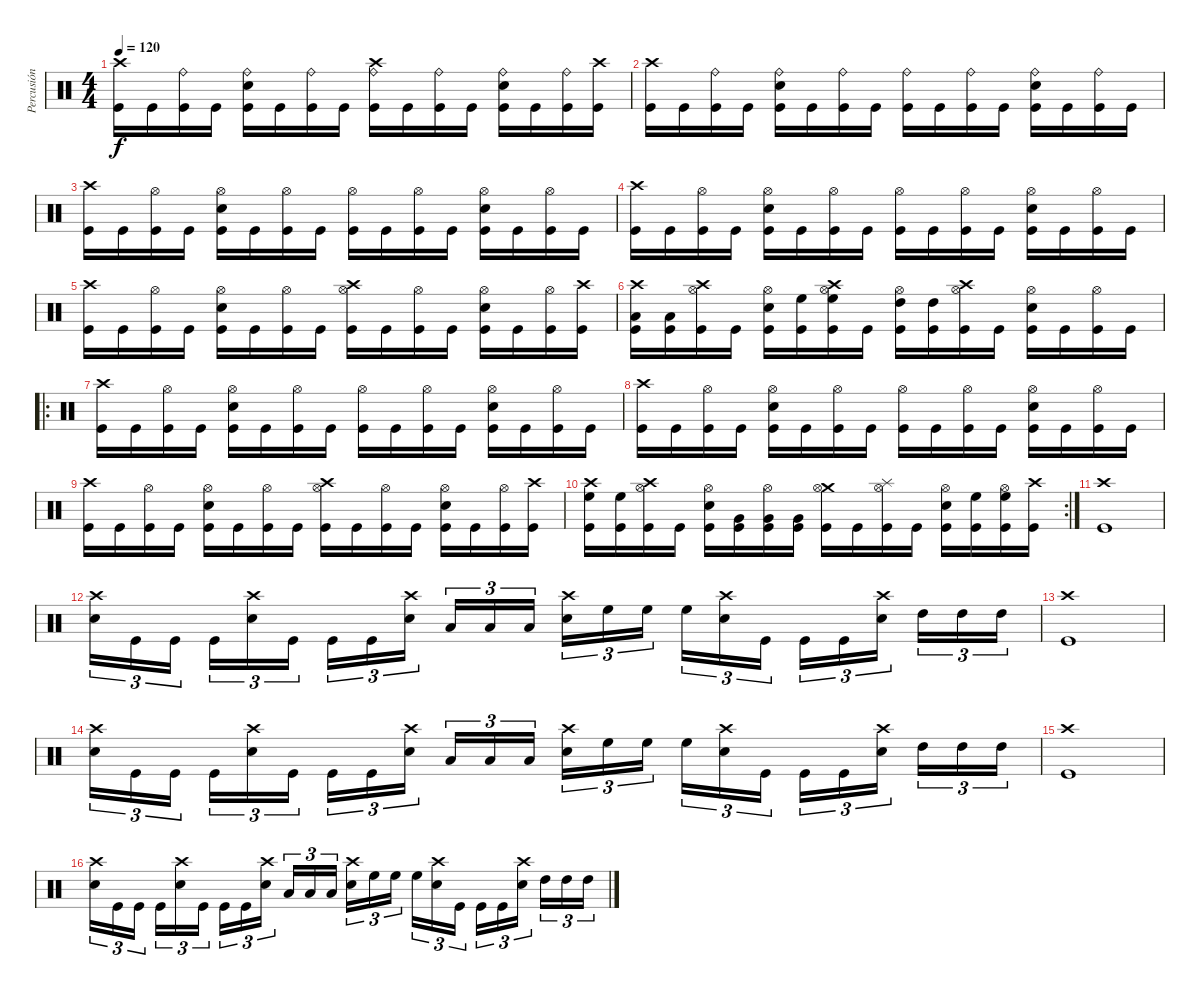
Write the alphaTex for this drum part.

\track ("Percusión" "Percusión") {instrument percussion}
\staff {score}
\articulation defaults
\ts (4 4)
\tempo 120
\clef neutral
\ks c
("Crash high (hit)" "Kick (hit)").16{dy f} "Kick (hit)".16 ("Ride (bell)" "Kick (hit)").16 "Kick (hit)".16 ("Snare (hit) 2" "Ride (bell)" "Kick (hit)").16 "Kick (hit)".16 ("Ride (bell)" "Kick (hit)").16 "Kick (hit)".16 ("Crash high (hit)" "Ride (bell)" "Kick (hit)").16 "Kick (hit)".16 ("Ride (bell)" "Kick (hit)").16 "Kick (hit)".16 ("Snare (hit) 2" "Ride (bell)" "Kick (hit)").16 "Kick (hit)".16 ("Ride (bell)" "Kick (hit)").16 ("Crash high (hit)" "Kick (hit)").16 |
("Crash high (hit)" "Kick (hit)").16 "Kick (hit)".16 ("Ride (bell)" "Kick (hit)").16 "Kick (hit)".16 ("Snare (hit) 2" "Ride (bell)" "Kick (hit)").16 "Kick (hit)".16 ("Ride (bell)" "Kick (hit)").16 "Kick (hit)".16 ("Ride (bell)" "Kick (hit)").16 "Kick (hit)".16 ("Ride (bell)" "Kick (hit)").16 "Kick (hit)".16 ("Snare (hit) 2" "Ride (bell)" "Kick (hit)").16 "Kick (hit)".16 ("Ride (bell)" "Kick (hit)").16 "Kick (hit)".16 |
("Crash high (hit)" "Kick (hit)").16 "Kick (hit)".16 ("Hi-Hat (open)" "Kick (hit)").16 "Kick (hit)".16 ("Snare (hit) 2" "Hi-Hat (open)" "Kick (hit)").16 "Kick (hit)".16 ("Hi-Hat (open)" "Kick (hit)").16 "Kick (hit)".16 ("Hi-Hat (open)" "Kick (hit)").16 "Kick (hit)".16 ("Hi-Hat (open)" "Kick (hit)").16 "Kick (hit)".16 ("Snare (hit) 2" "Hi-Hat (open)" "Kick (hit)").16 "Kick (hit)".16 ("Hi-Hat (open)" "Kick (hit)").16 "Kick (hit)".16 |
("Crash high (hit)" "Kick (hit)").16 "Kick (hit)".16 ("Hi-Hat (open)" "Kick (hit)").16 "Kick (hit)".16 ("Snare (hit) 2" "Hi-Hat (open)" "Kick (hit)").16 "Kick (hit)".16 ("Hi-Hat (open)" "Kick (hit)").16 "Kick (hit)".16 ("Hi-Hat (open)" "Kick (hit)").16 "Kick (hit)".16 ("Hi-Hat (open)" "Kick (hit)").16 "Kick (hit)".16 ("Snare (hit) 2" "Hi-Hat (open)" "Kick (hit)").16 "Kick (hit)".16 ("Hi-Hat (open)" "Kick (hit)").16 "Kick (hit)".16 |
("Crash high (hit)" "Kick (hit)").16 "Kick (hit)".16 ("Hi-Hat (open)" "Kick (hit)").16 "Kick (hit)".16 ("Snare (hit) 2" "Hi-Hat (open)" "Kick (hit)").16 "Kick (hit)".16 ("Hi-Hat (open)" "Kick (hit)").16 "Kick (hit)".16 ("Crash high (hit)" "Hi-Hat (open)" "Kick (hit)").16 "Kick (hit)".16 ("Hi-Hat (open)" "Kick (hit)").16 "Kick (hit)".16 ("Snare (hit) 2" "Hi-Hat (open)" "Kick (hit)").16 "Kick (hit)".16 ("Hi-Hat (open)" "Kick (hit)").16 ("Crash high (hit)" "Kick (hit)").16 |
("Low Floor Tom (hit)" "Crash high (hit)" "Kick (hit)").16 ("Low Floor Tom (hit)" "Kick (hit)").16 ("Crash high (hit)" "Hi-Hat (open)" "Kick (hit)").16 "Kick (hit)".16 ("Snare (hit) 2" "Hi-Hat (open)" "Kick (hit)").16 ("High Floor Tom (hit)" "Kick (hit)").16 ("High Floor Tom (hit)" "Crash high (hit)" "Hi-Hat (open)" "Kick (hit)").16 "Kick (hit)".16 ("High Tom (hit)" "Hi-Hat (open)" "Kick (hit)").16 ("High Tom (hit)" "Kick (hit)").16 ("Crash high (hit)" "Hi-Hat (open)" "Kick (hit)").16 "Kick (hit)".16 ("Snare (hit) 2" "Hi-Hat (open)" "Kick (hit)").16 "Kick (hit)".16 ("Hi-Hat (open)" "Kick (hit)").16 "Kick (hit)".16 |
\ro
("Crash high (hit)" "Kick (hit)").16 "Kick (hit)".16 ("Hi-Hat (open)" "Kick (hit)").16 "Kick (hit)".16 ("Snare (hit) 2" "Hi-Hat (open)" "Kick (hit)").16 "Kick (hit)".16 ("Hi-Hat (open)" "Kick (hit)").16 "Kick (hit)".16 ("Hi-Hat (open)" "Kick (hit)").16 "Kick (hit)".16 ("Hi-Hat (open)" "Kick (hit)").16 "Kick (hit)".16 ("Snare (hit) 2" "Hi-Hat (open)" "Kick (hit)").16 "Kick (hit)".16 ("Hi-Hat (open)" "Kick (hit)").16 "Kick (hit)".16 |
("Crash high (hit)" "Kick (hit)").16 "Kick (hit)".16 ("Hi-Hat (open)" "Kick (hit)").16 "Kick (hit)".16 ("Snare (hit) 2" "Hi-Hat (open)" "Kick (hit)").16 "Kick (hit)".16 ("Hi-Hat (open)" "Kick (hit)").16 "Kick (hit)".16 ("Hi-Hat (open)" "Kick (hit)").16 "Kick (hit)".16 ("Hi-Hat (open)" "Kick (hit)").16 "Kick (hit)".16 ("Snare (hit) 2" "Hi-Hat (open)" "Kick (hit)").16 "Kick (hit)".16 ("Hi-Hat (open)" "Kick (hit)").16 "Kick (hit)".16 |
("Crash high (hit)" "Kick (hit)").16 "Kick (hit)".16 ("Hi-Hat (open)" "Kick (hit)").16 "Kick (hit)".16 ("Snare (hit) 2" "Hi-Hat (open)" "Kick (hit)").16 "Kick (hit)".16 ("Hi-Hat (open)" "Kick (hit)").16 "Kick (hit)".16 ("Crash high (hit)" "Hi-Hat (open)" "Kick (hit)").16 "Kick (hit)".16 ("Hi-Hat (open)" "Kick (hit)").16 "Kick (hit)".16 ("Snare (hit) 2" "Hi-Hat (open)" "Kick (hit)").16 "Kick (hit)".16 ("Hi-Hat (open)" "Kick (hit)").16 ("Crash high (hit)" "Kick (hit)").16 |
\rc 2
("High Floor Tom (hit)" "Crash high (hit)" "Kick (hit)").16 ("High Floor Tom (hit)" "Kick (hit)").16 ("Crash high (hit)" "Hi-Hat (open)" "Kick (hit)").16 "Kick (hit)".16 ("Snare (hit) 2" "Hi-Hat (open)" "Kick (hit)").16 ("Very Low Tom (hit)" "Kick (hit)").16 ("Very Low Tom (hit)" "Hi-Hat (open)" "Kick (hit)").16 ("Very Low Tom (hit)" "Kick (hit)").16 ("Crash medium (hit)" "Hi-Hat (open)" "Kick (hit)").16 "Kick (hit)".16 ("Splash (hit)" "Hi-Hat (open)" "Kick (hit)").16 "Kick (hit)".16 ("Snare (hit) 2" "Hi-Hat (open)" "Kick (hit)").16 ("High Floor Tom (hit)" "Kick (hit)").16 ("High Floor Tom (hit)" "Hi-Hat (open)" "Kick (hit)").16 ("Crash high (hit)" "Kick (hit)").16 |
("Kick (hit)" "Crash high (hit)").1 |
("Crash high (hit)" "Snare (hit) 2").16{tu (3 2)} "Kick (hit)".16{tu (3 2)} "Kick (hit)".16{tu (3 2)} "Kick (hit)".16{tu (3 2)} ("Crash high (hit)" "Snare (hit) 2").16{tu (3 2)} "Kick (hit)".16{tu (3 2)} "Kick (hit)".16{tu (3 2)} "Kick (hit)".16{tu (3 2)} ("Crash high (hit)" "Snare (hit) 2").16{tu (3 2)} "Low Floor Tom (hit)".16{tu (3 2)} "Low Floor Tom (hit)".16{tu (3 2)} "Low Floor Tom (hit)".16{tu (3 2)} ("Crash high (hit)" "Snare (hit) 2").16{tu (3 2)} "High Floor Tom (hit)".16{tu (3 2)} "High Floor Tom (hit)".16{tu (3 2)} "High Floor Tom (hit)".16{tu (3 2)} ("Crash high (hit)" "Snare (hit) 2").16{tu (3 2)} "Kick (hit)".16{tu (3 2)} "Kick (hit)".16{tu (3 2)} "Kick (hit)".16{tu (3 2)} ("Snare (hit) 2" "Crash high (hit)").16{tu (3 2)} "High Tom (hit)".16{tu (3 2)} "High Tom (hit)".16{tu (3 2)} "High Tom (hit)".16{tu (3 2)} |
("Kick (hit)" "Crash high (hit)").1 |
("Crash high (hit)" "Snare (hit) 2").16{tu (3 2)} "Kick (hit)".16{tu (3 2)} "Kick (hit)".16{tu (3 2)} "Kick (hit)".16{tu (3 2)} ("Crash high (hit)" "Snare (hit) 2").16{tu (3 2)} "Kick (hit)".16{tu (3 2)} "Kick (hit)".16{tu (3 2)} "Kick (hit)".16{tu (3 2)} ("Crash high (hit)" "Snare (hit) 2").16{tu (3 2)} "Low Floor Tom (hit)".16{tu (3 2)} "Low Floor Tom (hit)".16{tu (3 2)} "Low Floor Tom (hit)".16{tu (3 2)} ("Crash high (hit)" "Snare (hit) 2").16{tu (3 2)} "High Floor Tom (hit)".16{tu (3 2)} "High Floor Tom (hit)".16{tu (3 2)} "High Floor Tom (hit)".16{tu (3 2)} ("Crash high (hit)" "Snare (hit) 2").16{tu (3 2)} "Kick (hit)".16{tu (3 2)} "Kick (hit)".16{tu (3 2)} "Kick (hit)".16{tu (3 2)} ("Snare (hit) 2" "Crash high (hit)").16{tu (3 2)} "High Tom (hit)".16{tu (3 2)} "High Tom (hit)".16{tu (3 2)} "High Tom (hit)".16{tu (3 2)} |
("Kick (hit)" "Crash high (hit)").1 |
("Crash high (hit)" "Snare (hit) 2").16{tu (3 2)} "Kick (hit)".16{tu (3 2)} "Kick (hit)".16{tu (3 2)} "Kick (hit)".16{tu (3 2)} ("Crash high (hit)" "Snare (hit) 2").16{tu (3 2)} "Kick (hit)".16{tu (3 2)} "Kick (hit)".16{tu (3 2)} "Kick (hit)".16{tu (3 2)} ("Crash high (hit)" "Snare (hit) 2").16{tu (3 2)} "Low Floor Tom (hit)".16{tu (3 2)} "Low Floor Tom (hit)".16{tu (3 2)} "Low Floor Tom (hit)".16{tu (3 2)} ("Crash high (hit)" "Snare (hit) 2").16{tu (3 2)} "High Floor Tom (hit)".16{tu (3 2)} "High Floor Tom (hit)".16{tu (3 2)} "High Floor Tom (hit)".16{tu (3 2)} ("Crash high (hit)" "Snare (hit) 2").16{tu (3 2)} "Kick (hit)".16{tu (3 2)} "Kick (hit)".16{tu (3 2)} "Kick (hit)".16{tu (3 2)} ("Snare (hit) 2" "Crash high (hit)").16{tu (3 2)} "High Tom (hit)".16{tu (3 2)} "High Tom (hit)".16{tu (3 2)} "High Tom (hit)".16{tu (3 2)}
